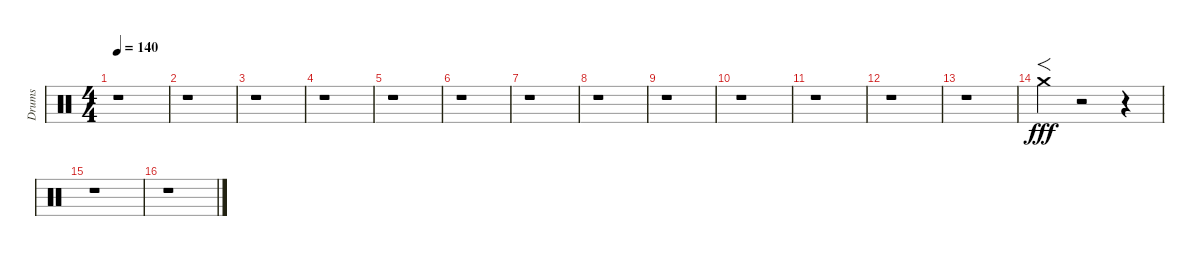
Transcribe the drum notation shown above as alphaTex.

\track ("Drums" "Drums") {instrument percussion}
\staff {score}
\articulation defaults
\ts (4 4)
\tempo 140
\clef neutral
\ks c
r.1{dy fff} |
r.1 |
r.1 |
r.1 |
r.1 |
r.1 |
r.1 |
r.1 |
r.1 |
r.1 |
r.1 |
r.1 |
r.1 |
"Crash medium (hit)".4{f} r.2 r.4 |
r.1 |
r.1
